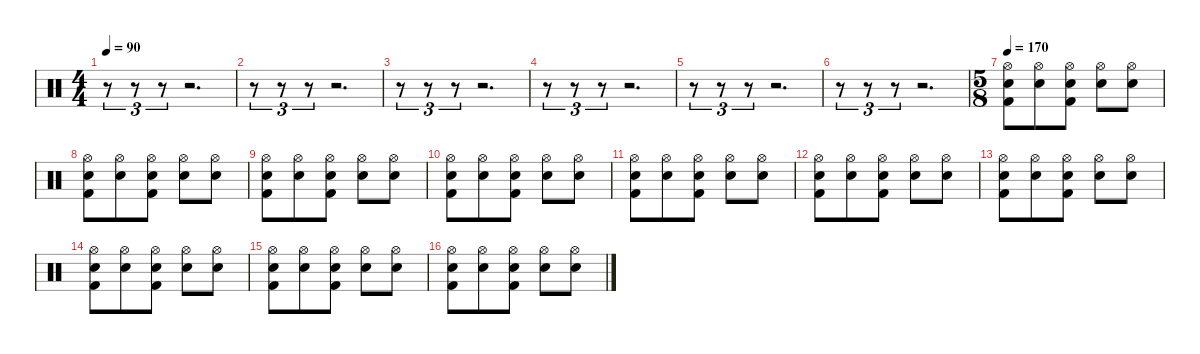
\defaultSystemsLayout 4
\hideDynamics
\bracketExtendMode nobrackets
\singleTrackTrackNamePolicy hidden
\multiTrackTrackNamePolicy hidden
\firstSystemTrackNameMode fullname
\firstSystemTrackNameOrientation horizontal
\otherSystemsTrackNameOrientation horizontal
\track ("Drums" "drm.") {instrument percussion}
\staff {score}
\articulation defaults
\ts (4 4)
\tempo 90
\clef neutral
\ks c
r.8{tu (3 2) dy f beam Down} r.8{tu (3 2) beam Down} r.8{tu (3 2) beam Down} r.2{d beam Down} |
r.8{tu (3 2) beam Down} r.8{tu (3 2) beam Down} r.8{tu (3 2) beam Down} r.2{d beam Down} |
r.8{tu (3 2) beam Down} r.8{tu (3 2) beam Down} r.8{tu (3 2) beam Down} r.2{d beam Down} |
r.8{tu (3 2) beam Down} r.8{tu (3 2) beam Down} r.8{tu (3 2) beam Down} r.2{d beam Down} |
r.8{tu (3 2) beam Down} r.8{tu (3 2) beam Down} r.8{tu (3 2) beam Down} r.2{d beam Down} |
r.8{tu (3 2) beam Down} r.8{tu (3 2) beam Down} r.8{tu (3 2) beam Down} r.2{d beam Down} |
\ts (5 8)
\tempo 170
("Hi-Hat (open)" "Snare (hit) 2" "Kick (hit) 2").8{dy ff beam Down} ("Hi-Hat (open)" "Snare (hit) 2").8{dy f beam Down} ("Hi-Hat (open)" "Snare (hit) 2" "Kick (hit) 2").8{dy ff beam Down} ("Hi-Hat (open)" "Snare (hit) 2").8{dy f beam Down} ("Hi-Hat (open)" "Snare (hit) 2").8{beam Down} |
("Hi-Hat (open)" "Snare (hit) 2" "Kick (hit) 2").8{dy ff beam Down} ("Hi-Hat (open)" "Snare (hit) 2").8{dy f beam Down} ("Hi-Hat (open)" "Snare (hit) 2" "Kick (hit) 2").8{dy ff beam Down} ("Hi-Hat (open)" "Snare (hit) 2").8{dy f beam Down} ("Hi-Hat (open)" "Snare (hit) 2").8{beam Down} |
("Hi-Hat (open)" "Snare (hit) 2" "Kick (hit) 2").8{dy ff beam Down} ("Hi-Hat (open)" "Snare (hit) 2").8{dy f beam Down} ("Hi-Hat (open)" "Snare (hit) 2" "Kick (hit) 2").8{dy ff beam Down} ("Hi-Hat (open)" "Snare (hit) 2").8{dy f beam Down} ("Hi-Hat (open)" "Snare (hit) 2").8{beam Down} |
("Hi-Hat (open)" "Snare (hit) 2" "Kick (hit) 2").8{dy ff beam Down} ("Hi-Hat (open)" "Snare (hit) 2").8{dy f beam Down} ("Hi-Hat (open)" "Snare (hit) 2" "Kick (hit) 2").8{dy ff beam Down} ("Hi-Hat (open)" "Snare (hit) 2").8{dy f beam Down} ("Hi-Hat (open)" "Snare (hit) 2").8{beam Down} |
("Hi-Hat (open)" "Snare (hit) 2" "Kick (hit) 2").8{dy ff beam Down} ("Hi-Hat (open)" "Snare (hit) 2").8{dy f beam Down} ("Hi-Hat (open)" "Snare (hit) 2" "Kick (hit) 2").8{dy ff beam Down} ("Hi-Hat (open)" "Snare (hit) 2").8{dy f beam Down} ("Hi-Hat (open)" "Snare (hit) 2").8{beam Down} |
("Hi-Hat (open)" "Snare (hit) 2" "Kick (hit) 2").8{dy ff beam Down} ("Hi-Hat (open)" "Snare (hit) 2").8{dy f beam Down} ("Hi-Hat (open)" "Snare (hit) 2" "Kick (hit) 2").8{dy ff beam Down} ("Hi-Hat (open)" "Snare (hit) 2").8{dy f beam Down} ("Hi-Hat (open)" "Snare (hit) 2").8{beam Down} |
("Hi-Hat (open)" "Snare (hit) 2" "Kick (hit) 2").8{dy ff beam Down} ("Hi-Hat (open)" "Snare (hit) 2").8{dy f beam Down} ("Hi-Hat (open)" "Snare (hit) 2" "Kick (hit) 2").8{dy ff beam Down} ("Hi-Hat (open)" "Snare (hit) 2").8{dy f beam Down} ("Hi-Hat (open)" "Snare (hit) 2").8{beam Down} |
("Hi-Hat (open)" "Snare (hit) 2" "Kick (hit) 2").8{dy ff beam Down} ("Hi-Hat (open)" "Snare (hit) 2").8{dy f beam Down} ("Hi-Hat (open)" "Snare (hit) 2" "Kick (hit) 2").8{dy ff beam Down} ("Hi-Hat (open)" "Snare (hit) 2").8{dy f beam Down} ("Hi-Hat (open)" "Snare (hit) 2").8{beam Down} |
("Hi-Hat (open)" "Snare (hit) 2" "Kick (hit) 2").8{dy ff beam Down} ("Hi-Hat (open)" "Snare (hit) 2").8{dy f beam Down} ("Hi-Hat (open)" "Snare (hit) 2" "Kick (hit) 2").8{dy ff beam Down} ("Hi-Hat (open)" "Snare (hit) 2").8{dy f beam Down} ("Hi-Hat (open)" "Snare (hit) 2").8{beam Down} |
("Hi-Hat (open)" "Snare (hit) 2" "Kick (hit) 2").8{dy ff beam Down} ("Hi-Hat (open)" "Snare (hit) 2").8{dy f beam Down} ("Hi-Hat (open)" "Snare (hit) 2" "Kick (hit) 2").8{dy ff beam Down} ("Hi-Hat (open)" "Snare (hit) 2").8{dy f beam Down} ("Hi-Hat (open)" "Snare (hit) 2").8{beam Down}
